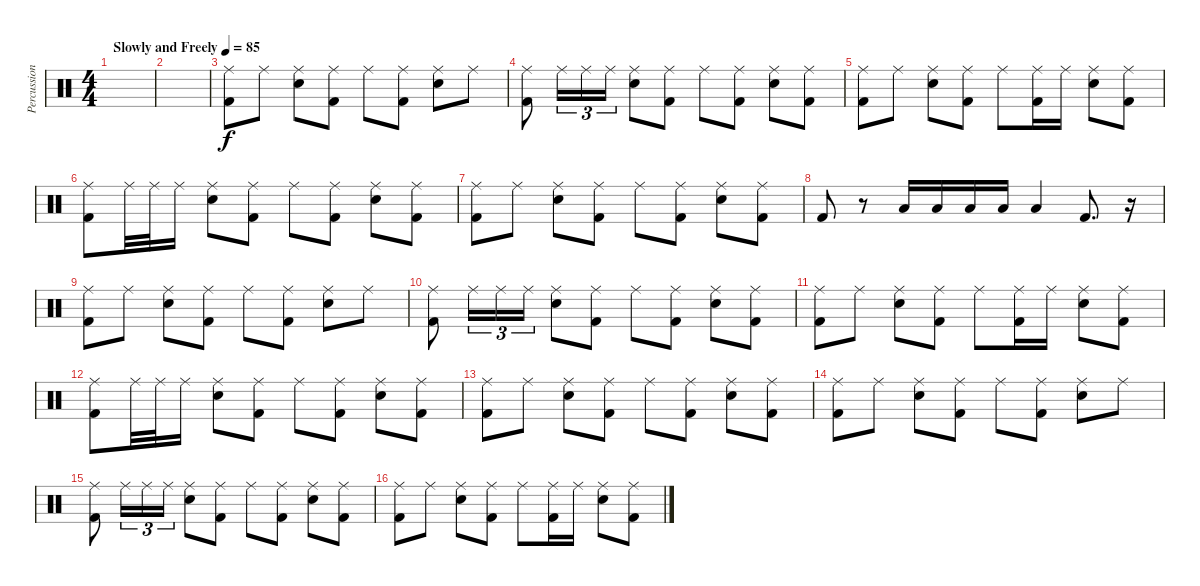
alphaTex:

\track ("Percussion" "Percussion") {instrument percussion}
\staff {score}
\articulation defaults
\ts (4 4)
\tempo (85 "Slowly and Freely")
\clef neutral
\ks c
|
|
("Ride (middle)" "Kick (hit) 2").8 "Ride (middle)".8 ("Ride (middle)" "Electric Snare (hit)").8 ("Ride (middle)" "Kick (hit) 2").8 "Ride (middle)".8 ("Ride (middle)" "Kick (hit) 2").8 ("Ride (middle)" "Electric Snare (hit)").8 "Ride (middle)".8 |
("Ride (middle)" "Kick (hit) 2").8 "Ride (middle)".16{tu (3 2)} "Ride (middle)".16{tu (3 2)} "Ride (middle)".16{tu (3 2)} ("Ride (middle)" "Electric Snare (hit)").8 ("Ride (middle)" "Kick (hit) 2").8 "Ride (middle)".8 ("Ride (middle)" "Kick (hit) 2").8 ("Ride (middle)" "Electric Snare (hit)").8 ("Ride (middle)" "Kick (hit) 2").8 |
("Ride (middle)" "Kick (hit) 2").8 "Ride (middle)".8 ("Ride (middle)" "Electric Snare (hit)").8 ("Ride (middle)" "Kick (hit) 2").8 "Ride (middle)".8 ("Ride (middle)" "Kick (hit) 2").16 "Ride (middle)".16 ("Ride (middle)" "Electric Snare (hit)").8 ("Ride (middle)" "Kick (hit) 2").8 |
("Ride (middle)" "Kick (hit) 2").8 "Ride (middle)".32 "Ride (middle)".32 "Ride (middle)".16 ("Ride (middle)" "Electric Snare (hit)").8 ("Ride (middle)" "Kick (hit) 2").8 "Ride (middle)".8 ("Ride (middle)" "Kick (hit) 2").8 ("Ride (middle)" "Electric Snare (hit)").8 ("Ride (middle)" "Kick (hit) 2").8 |
("Ride (middle)" "Kick (hit) 2").8 "Ride (middle)".8 ("Ride (middle)" "Electric Snare (hit)").8 ("Ride (middle)" "Kick (hit) 2").8 "Ride (middle)".8 ("Ride (middle)" "Kick (hit) 2").8 ("Ride (middle)" "Electric Snare (hit)").8 ("Ride (middle)" "Kick (hit) 2").8 |
"Kick (hit) 2".8 r.8 "Low Tom (hit)".16 "Low Tom (hit)".16 "Low Tom (hit)".16 "Low Tom (hit)".16 "Low Floor Tom (hit)".4 "Kick (hit) 2".8{d} r.16 |
("Ride (middle)" "Kick (hit) 2").8 "Ride (middle)".8 ("Ride (middle)" "Electric Snare (hit)").8 ("Ride (middle)" "Kick (hit) 2").8 "Ride (middle)".8 ("Ride (middle)" "Kick (hit) 2").8 ("Ride (middle)" "Electric Snare (hit)").8 "Ride (middle)".8 |
("Ride (middle)" "Kick (hit) 2").8 "Ride (middle)".16{tu (3 2)} "Ride (middle)".16{tu (3 2)} "Ride (middle)".16{tu (3 2)} ("Ride (middle)" "Electric Snare (hit)").8 ("Ride (middle)" "Kick (hit) 2").8 "Ride (middle)".8 ("Ride (middle)" "Kick (hit) 2").8 ("Ride (middle)" "Electric Snare (hit)").8 ("Ride (middle)" "Kick (hit) 2").8 |
("Ride (middle)" "Kick (hit) 2").8 "Ride (middle)".8 ("Ride (middle)" "Electric Snare (hit)").8 ("Ride (middle)" "Kick (hit) 2").8 "Ride (middle)".8 ("Ride (middle)" "Kick (hit) 2").16 "Ride (middle)".16 ("Ride (middle)" "Electric Snare (hit)").8 ("Ride (middle)" "Kick (hit) 2").8 |
("Ride (middle)" "Kick (hit) 2").8 "Ride (middle)".32 "Ride (middle)".32 "Ride (middle)".16 ("Ride (middle)" "Electric Snare (hit)").8 ("Ride (middle)" "Kick (hit) 2").8 "Ride (middle)".8 ("Ride (middle)" "Kick (hit) 2").8 ("Ride (middle)" "Electric Snare (hit)").8 ("Ride (middle)" "Kick (hit) 2").8 |
("Ride (middle)" "Kick (hit) 2").8 "Ride (middle)".8 ("Ride (middle)" "Electric Snare (hit)").8 ("Ride (middle)" "Kick (hit) 2").8 "Ride (middle)".8 ("Ride (middle)" "Kick (hit) 2").8 ("Ride (middle)" "Electric Snare (hit)").8 ("Ride (middle)" "Kick (hit) 2").8 |
("Ride (middle)" "Kick (hit) 2").8 "Ride (middle)".8 ("Ride (middle)" "Electric Snare (hit)").8 ("Ride (middle)" "Kick (hit) 2").8 "Ride (middle)".8 ("Ride (middle)" "Kick (hit) 2").8 ("Ride (middle)" "Electric Snare (hit)").8 "Ride (middle)".8 |
("Ride (middle)" "Kick (hit) 2").8 "Ride (middle)".16{tu (3 2)} "Ride (middle)".16{tu (3 2)} "Ride (middle)".16{tu (3 2)} ("Ride (middle)" "Electric Snare (hit)").8 ("Ride (middle)" "Kick (hit) 2").8 "Ride (middle)".8 ("Ride (middle)" "Kick (hit) 2").8 ("Ride (middle)" "Electric Snare (hit)").8 ("Ride (middle)" "Kick (hit) 2").8 |
("Ride (middle)" "Kick (hit) 2").8 "Ride (middle)".8 ("Ride (middle)" "Electric Snare (hit)").8 ("Ride (middle)" "Kick (hit) 2").8 "Ride (middle)".8 ("Ride (middle)" "Kick (hit) 2").16 "Ride (middle)".16 ("Ride (middle)" "Electric Snare (hit)").8 ("Ride (middle)" "Kick (hit) 2").8
